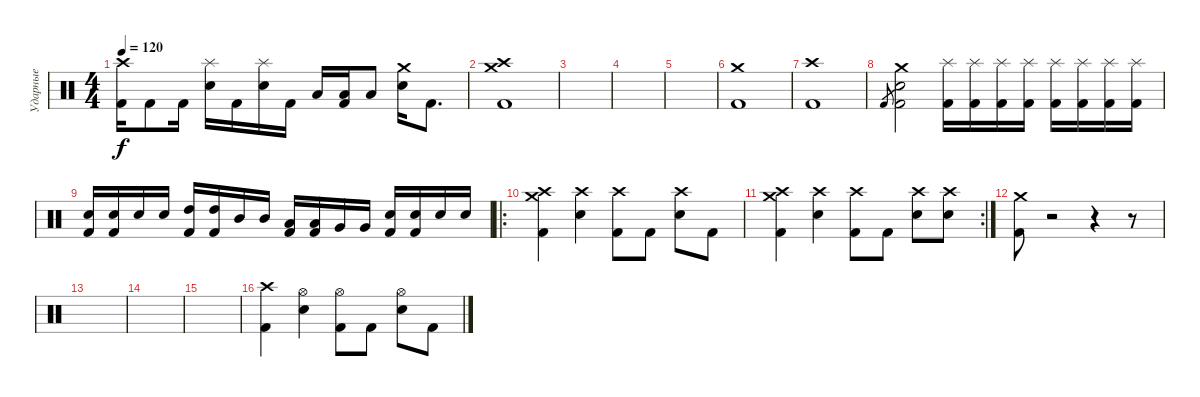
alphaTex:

\track ("Ударные" "Ударные") {instrument percussion}
\staff {score}
\articulation defaults
\ts (4 4)
\tempo 120
\clef neutral
\ks c
("Crash high (hit)" "Kick (hit) 2").16{dy f} "Kick (hit) 2".8 "Kick (hit) 2".16 ("Splash (hit)" "Electric Snare (hit)").16 "Kick (hit) 2".16 ("Splash (hit)" "Electric Snare (hit)").16 "Kick (hit) 2".16 "Low Tom (hit)".16 ("Low Tom (hit)" "Kick (hit) 2").16 "Low Tom (hit)".8 ("Crash medium (hit)" "Electric Snare (hit)").16 "Kick (hit) 2".8{d} |
("Kick (hit) 2" "Crash medium (hit)" "Crash high (hit)").1 |
|
|
|
("Crash medium (hit)" "Kick (hit) 2").1 |
("Crash high (hit)" "Kick (hit) 2").1 |
"Kick (hit) 2".8{gr} ("Kick (hit) 2" "Electric Snare (hit)" "Crash medium (hit)").2 ("Splash (hit)" "Kick (hit) 2").16 ("Splash (hit)" "Kick (hit) 2").16 ("Splash (hit)" "Kick (hit) 2").16 ("Splash (hit)" "Kick (hit) 2").16 ("Splash (hit)" "Kick (hit) 2").16 ("Splash (hit)" "Kick (hit) 2").16 ("Splash (hit)" "Kick (hit) 2").16 ("Splash (hit)" "Kick (hit) 2").16 |
("Kick (hit) 2" "Electric Snare (hit)").16 ("Kick (hit) 2" "Electric Snare (hit)").16 "Electric Snare (hit)".16 "Electric Snare (hit)".16 ("Kick (hit) 2" "High Tom (hit)").16 ("Kick (hit) 2" "High Tom (hit)").16 "Mid Tom (hit)".16 "Mid Tom (hit)".16 ("Kick (hit) 2" "Low Tom (hit)").16 ("Kick (hit) 2" "Low Tom (hit)").16 "Very Low Tom (hit)".16 "Very Low Tom (hit)".16 ("Kick (hit) 2" "Electric Snare (hit)").16 ("Kick (hit) 2" "Electric Snare (hit)").16 "Electric Snare (hit)".16 "Electric Snare (hit)".16 |
\ro
("Kick (hit) 2" "Crash high (hit)" "Crash medium (hit)").4 ("Crash high (hit)" "Electric Snare (hit)").4 ("Kick (hit) 2" "Crash high (hit)").8 "Kick (hit) 2".8 ("Crash high (hit)" "Electric Snare (hit)").8 "Kick (hit) 2".8 |
\rc 2
("Kick (hit) 2" "Crash high (hit)" "Crash medium (hit)").4 ("Crash high (hit)" "Electric Snare (hit)").4 ("Kick (hit) 2" "Crash high (hit)").8 "Kick (hit) 2".8 ("Crash high (hit)" "Electric Snare (hit)").8 ("Crash high (hit)" "Electric Snare (hit)").8 |
("Kick (hit) 2" "Crash medium (hit)").8 r.2 r.4 r.8 |
|
|
|
("Kick (hit) 2" "Crash high (hit)").4 ("Electric Snare (hit)" "Hi-Hat (open)").4 ("Kick (hit) 2" "Hi-Hat (open)").8 "Kick (hit) 2".8 ("Electric Snare (hit)" "Hi-Hat (open)").8 "Kick (hit) 2".8
